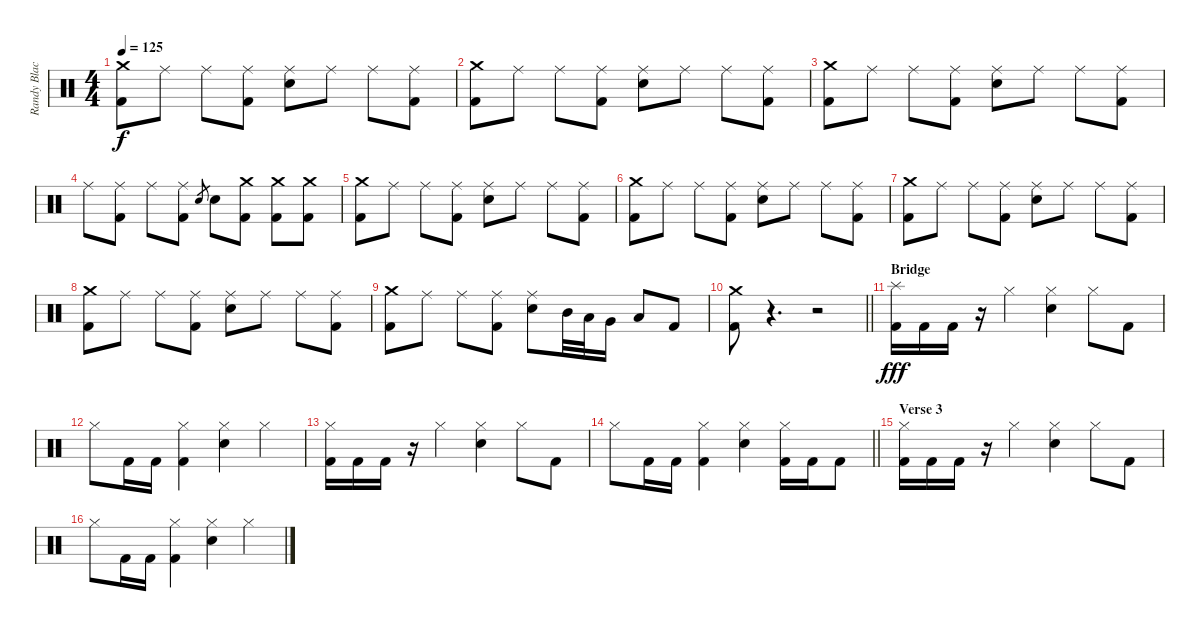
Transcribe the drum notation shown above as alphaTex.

\track ("Randy Black" "Randy Blac") {instrument percussion}
\staff {score}
\articulation defaults
\ts (4 4)
\tempo 125
\clef neutral
\ks c
("Crash medium (hit)" "Kick (hit) 2").8{dy f} "Ride (middle)".8 "Ride (middle)".8 ("Ride (middle)" "Kick (hit) 2").8 ("Ride (middle)" "Electric Snare (hit)").8 "Ride (middle)".8 "Ride (middle)".8 ("Ride (middle)" "Kick (hit) 2").8 |
("Crash medium (hit)" "Kick (hit) 2").8 "Ride (middle)".8 "Ride (middle)".8 ("Ride (middle)" "Kick (hit) 2").8 ("Ride (middle)" "Electric Snare (hit)").8 "Ride (middle)".8 "Ride (middle)".8 ("Ride (middle)" "Kick (hit) 2").8 |
("Crash medium (hit)" "Kick (hit) 2").8 "Ride (middle)".8 "Ride (middle)".8 ("Ride (middle)" "Kick (hit) 2").8 ("Ride (middle)" "Electric Snare (hit)").8 "Ride (middle)".8 "Ride (middle)".8 ("Ride (middle)" "Kick (hit) 2").8 |
"Ride (middle)".8 ("Ride (middle)" "Kick (hit) 2").8 "Ride (middle)".8 ("Ride (middle)" "Kick (hit) 2").8 "Electric Snare (hit)".8{gr} "Electric Snare (hit)".8 ("Crash medium (hit)" "Kick (hit) 2").8 ("Crash medium (hit)" "Kick (hit) 2").8 ("Crash medium (hit)" "Kick (hit) 2").8 |
("Crash medium (hit)" "Kick (hit) 2").8 "Ride (middle)".8 "Ride (middle)".8 ("Ride (middle)" "Kick (hit) 2").8 ("Ride (middle)" "Electric Snare (hit)").8 "Ride (middle)".8 "Ride (middle)".8 ("Ride (middle)" "Kick (hit) 2").8 |
("Crash medium (hit)" "Kick (hit) 2").8 "Ride (middle)".8 "Ride (middle)".8 ("Ride (middle)" "Kick (hit) 2").8 ("Ride (middle)" "Electric Snare (hit)").8 "Ride (middle)".8 "Ride (middle)".8 ("Ride (middle)" "Kick (hit) 2").8 |
("Crash medium (hit)" "Kick (hit) 2").8 "Ride (middle)".8 "Ride (middle)".8 ("Ride (middle)" "Kick (hit) 2").8 ("Ride (middle)" "Electric Snare (hit)").8 "Ride (middle)".8 "Ride (middle)".8 ("Ride (middle)" "Kick (hit) 2").8 |
("Crash medium (hit)" "Kick (hit) 2").8 "Ride (middle)".8 "Ride (middle)".8 ("Ride (middle)" "Kick (hit) 2").8 ("Ride (middle)" "Electric Snare (hit)").8 "Ride (middle)".8 "Ride (middle)".8 ("Ride (middle)" "Kick (hit) 2").8 |
("Crash medium (hit)" "Kick (hit) 2").8 "Ride (middle)".8 "Ride (middle)".8 ("Ride (middle)" "Kick (hit) 2").8 ("Ride (middle)" "Electric Snare (hit)").8 "Mid Tom (hit)".32 "Low Tom (hit)".32 "Very Low Tom (hit)".16 "Low Floor Tom (hit)".8 "Kick (hit) 2".8 |
\barLineRight lightlight
("Crash medium (hit)" "Kick (hit) 2").8 r.4{d} r.2 |
\section ("" "Bridge")
("Splash (hit)" "Kick (hit) 2").16{dy fff} "Kick (hit) 2".16 "Kick (hit) 2".16 r.16 "Hi-Hat (closed)".4 ("Hi-Hat (closed)" "Electric Snare (hit)").4 "Hi-Hat (closed)".8 "Kick (hit) 2".8 |
"Hi-Hat (closed)".8 "Kick (hit) 2".16 "Kick (hit) 2".16 ("Hi-Hat (closed)" "Kick (hit) 2").4 ("Hi-Hat (closed)" "Electric Snare (hit)").4 "Hi-Hat (closed)".4 |
("Hi-Hat (closed)" "Kick (hit) 2").16 "Kick (hit) 2".16 "Kick (hit) 2".16 r.16 "Hi-Hat (closed)".4 ("Hi-Hat (closed)" "Electric Snare (hit)").4 "Hi-Hat (closed)".8 "Kick (hit) 2".8 |
\barLineRight lightlight "Hi-Hat (closed)".8 "Kick (hit) 2".16 "Kick (hit) 2".16
("Hi-Hat (closed)" "Kick (hit) 2").4 ("Hi-Hat (closed)" "Electric Snare (hit)").4 ("Hi-Hat (closed)" "Kick (hit) 2").16 "Kick (hit) 2".16 "Kick (hit) 2".8 |
\section ("" "Verse 3")
("Hi-Hat (closed)" "Kick (hit) 2").16 "Kick (hit) 2".16 "Kick (hit) 2".16 r.16 "Hi-Hat (closed)".4 ("Hi-Hat (closed)" "Electric Snare (hit)").4 "Hi-Hat (closed)".8 "Kick (hit) 2".8 |
"Hi-Hat (closed)".8 "Kick (hit) 2".16 "Kick (hit) 2".16 ("Hi-Hat (closed)" "Kick (hit) 2").4 ("Hi-Hat (closed)" "Electric Snare (hit)").4 "Hi-Hat (closed)".4
